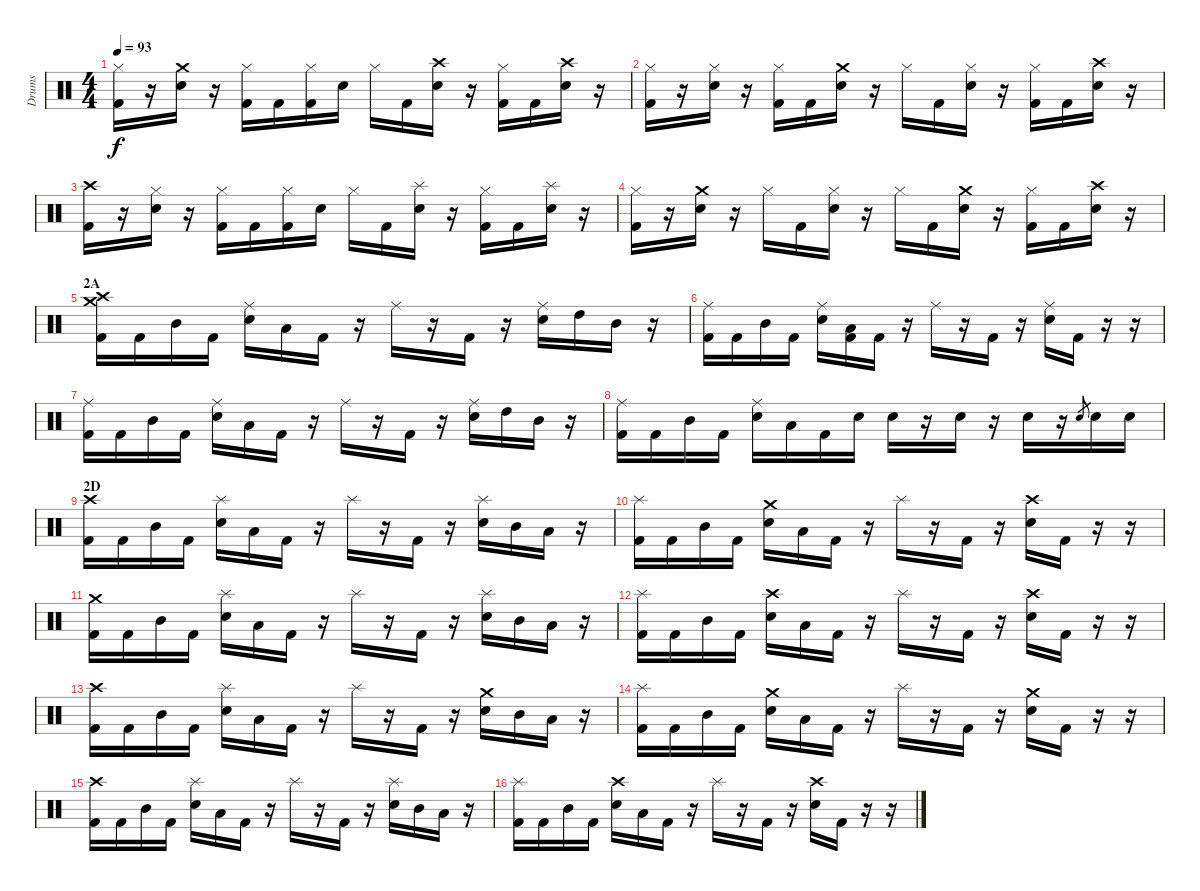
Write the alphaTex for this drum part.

\track ("Drums" "Drums") {instrument percussion}
\staff {score}
\articulation defaults
\ts (4 4)
\tempo 93
\clef neutral
\ks c
("Hi-Hat (closed)" "Kick (hit) 2").16{dy f} r.16 ("Crash medium (hit)" "Electric Snare (hit)").16 r.16 ("Hi-Hat (closed)" "Kick (hit) 2").16 "Kick (hit) 2".16 ("Hi-Hat (closed)" "Kick (hit) 2").16 "Electric Snare (hit)".16 "Hi-Hat (closed)".16 "Kick (hit) 2".16 ("Crash high (hit)" "Electric Snare (hit)").16 r.16 ("Hi-Hat (closed)" "Kick (hit) 2").16 "Kick (hit) 2".16 ("Crash high (hit)" "Electric Snare (hit)").16 r.16 |
("Hi-Hat (closed)" "Kick (hit) 2").16 r.16 ("Hi-Hat (closed)" "Electric Snare (hit)").16 r.16 ("Hi-Hat (closed)" "Kick (hit) 2").16 "Kick (hit) 2".16 ("Crash medium (hit)" "Electric Snare (hit)").16 r.16 "Hi-Hat (closed)".16 "Kick (hit) 2".16 ("Hi-Hat (closed)" "Electric Snare (hit)").16 r.16 ("Hi-Hat (closed)" "Kick (hit) 2").16 "Kick (hit) 2".16 ("Crash high (hit)" "Electric Snare (hit)").16 r.16 |
("Crash high (hit)" "Kick (hit) 2").16 r.16 ("Hi-Hat (closed)" "Electric Snare (hit)").16 r.16 ("Hi-Hat (closed)" "Kick (hit) 2").16 "Kick (hit) 2".16 ("Hi-Hat (closed)" "Kick (hit) 2").16 "Electric Snare (hit)".16 "Hi-Hat (closed)".16 "Kick (hit) 2".16 ("Splash (hit)" "Electric Snare (hit)").16 r.16 ("Hi-Hat (closed)" "Kick (hit) 2").16 "Kick (hit) 2".16 ("Splash (hit)" "Electric Snare (hit)").16 r.16 |
("Hi-Hat (closed)" "Kick (hit) 2").16 r.16 ("Crash medium (hit)" "Electric Snare (hit)").16 r.16 "Hi-Hat (closed)".16 "Kick (hit) 2".16 ("Hi-Hat (closed)" "Electric Snare (hit)").16 r.16 "Hi-Hat (closed)".16 "Kick (hit) 2".16 ("Crash medium (hit)" "Electric Snare (hit)").16 r.16 ("Hi-Hat (closed)" "Kick (hit) 2").16 "Kick (hit) 2".16 ("Crash high (hit)" "Electric Snare (hit)").16 r.16 |
\section ("" "2A")
("Crash high (hit)" "Crash medium (hit)" "Kick (hit) 2").16 "Kick (hit) 2".16 "Mid Tom (hit)".16 "Kick (hit) 2".16 ("Ride (middle)" "Electric Snare (hit)").16 "Low Floor Tom (hit)".16 "Kick (hit) 2".16 r.16 "Ride (middle)".16 r.16 "Kick (hit) 2".16 r.16 ("Ride (middle)" "Electric Snare (hit)").16 "High Tom (hit)".16 "Mid Tom (hit)".16 r.16 |
("Ride (middle)" "Kick (hit) 2").16 "Kick (hit) 2".16 "Mid Tom (hit)".16 "Kick (hit) 2".16 ("Ride (middle)" "Electric Snare (hit)").16 ("Low Floor Tom (hit)" "Kick (hit) 2").16 "Kick (hit) 2".16 r.16 "Ride (middle)".16 r.16 "Kick (hit) 2".16 r.16 ("Ride (middle)" "Electric Snare (hit)").16 "Kick (hit) 2".16 r.16 r.16 |
("Ride (middle)" "Kick (hit) 2").16 "Kick (hit) 2".16 "Mid Tom (hit)".16 "Kick (hit) 2".16 ("Ride (middle)" "Electric Snare (hit)").16 "Low Floor Tom (hit)".16 "Kick (hit) 2".16 r.16 "Ride (middle)".16 r.16 "Kick (hit) 2".16 r.16 ("Ride (middle)" "Electric Snare (hit)").16 "High Tom (hit)".16 "Mid Tom (hit)".16 r.16 |
("Ride (middle)" "Kick (hit) 2").16 "Kick (hit) 2".16 "Mid Tom (hit)".16 "Kick (hit) 2".16 ("Ride (middle)" "Electric Snare (hit)").16 "Low Floor Tom (hit)".16 "Kick (hit) 2".16 "Electric Snare (hit)".16 "Electric Snare (hit)".16 r.16 "Electric Snare (hit)".16 r.16 "Electric Snare (hit)".16 r.16 "Electric Snare (hit)".8{gr} "Electric Snare (hit)".16 "Electric Snare (hit)".16 |
\section ("" "2D")
("Crash high (hit)" "Kick (hit) 2").16 "Kick (hit) 2".16 "Mid Tom (hit)".16 "Kick (hit) 2".16 ("Splash (hit)" "Electric Snare (hit)").16 "Low Floor Tom (hit)".16 "Kick (hit) 2".16 r.16 "Splash (hit)".16 r.16 "Kick (hit) 2".16 r.16 ("Splash (hit)" "Electric Snare (hit)").16 "Mid Tom (hit)".16 "Low Tom (hit)".16 r.16 |
("Splash (hit)" "Kick (hit) 2").16 "Kick (hit) 2".16 "Mid Tom (hit)".16 "Kick (hit) 2".16 ("Crash medium (hit)" "Electric Snare (hit)").16 "Low Floor Tom (hit)".16 "Kick (hit) 2".16 r.16 "Splash (hit)".16 r.16 "Kick (hit) 2".16 r.16 ("Crash high (hit)" "Electric Snare (hit)").16 "Kick (hit) 2".16 r.16 r.16 |
("Crash medium (hit)" "Kick (hit) 2").16 "Kick (hit) 2".16 "Mid Tom (hit)".16 "Kick (hit) 2".16 ("Splash (hit)" "Electric Snare (hit)").16 "Low Floor Tom (hit)".16 "Kick (hit) 2".16 r.16 "Splash (hit)".16 r.16 "Kick (hit) 2".16 r.16 ("Splash (hit)" "Electric Snare (hit)").16 "Mid Tom (hit)".16 "Low Tom (hit)".16 r.16 |
("Splash (hit)" "Kick (hit) 2").16 "Kick (hit) 2".16 "Mid Tom (hit)".16 "Kick (hit) 2".16 ("Crash high (hit)" "Electric Snare (hit)").16 "Low Floor Tom (hit)".16 "Kick (hit) 2".16 r.16 "Splash (hit)".16 r.16 "Kick (hit) 2".16 r.16 ("Crash high (hit)" "Electric Snare (hit)").16 "Kick (hit) 2".16 r.16 r.16 |
("Crash high (hit)" "Kick (hit) 2").16 "Kick (hit) 2".16 "Mid Tom (hit)".16 "Kick (hit) 2".16 ("Splash (hit)" "Electric Snare (hit)").16 "Low Floor Tom (hit)".16 "Kick (hit) 2".16 r.16 "Splash (hit)".16 r.16 "Kick (hit) 2".16 r.16 ("Crash medium (hit)" "Electric Snare (hit)").16 "Mid Tom (hit)".16 "Low Tom (hit)".16 r.16 |
("Splash (hit)" "Kick (hit) 2").16 "Kick (hit) 2".16 "Mid Tom (hit)".16 "Kick (hit) 2".16 ("Crash medium (hit)" "Electric Snare (hit)").16 "Low Floor Tom (hit)".16 "Kick (hit) 2".16 r.16 "Splash (hit)".16 r.16 "Kick (hit) 2".16 r.16 ("Crash medium (hit)" "Electric Snare (hit)").16 "Kick (hit) 2".16 r.16 r.16 |
("Crash high (hit)" "Kick (hit) 2").16{volume 10} "Kick (hit) 2".16 "Mid Tom (hit)".16 "Kick (hit) 2".16 ("Splash (hit)" "Electric Snare (hit)").16 "Low Floor Tom (hit)".16 "Kick (hit) 2".16 r.16 "Splash (hit)".16 r.16 "Kick (hit) 2".16 r.16 ("Splash (hit)" "Electric Snare (hit)").16 "Mid Tom (hit)".16 "Low Tom (hit)".16 r.16 |
("Splash (hit)" "Kick (hit) 2").16 "Kick (hit) 2".16 "Mid Tom (hit)".16 "Kick (hit) 2".16 ("Crash high (hit)" "Electric Snare (hit)").16 "Low Floor Tom (hit)".16 "Kick (hit) 2".16 r.16 "Splash (hit)".16 r.16 "Kick (hit) 2".16 r.16 ("Crash high (hit)" "Electric Snare (hit)").16 "Kick (hit) 2".16 r.16 r.16
